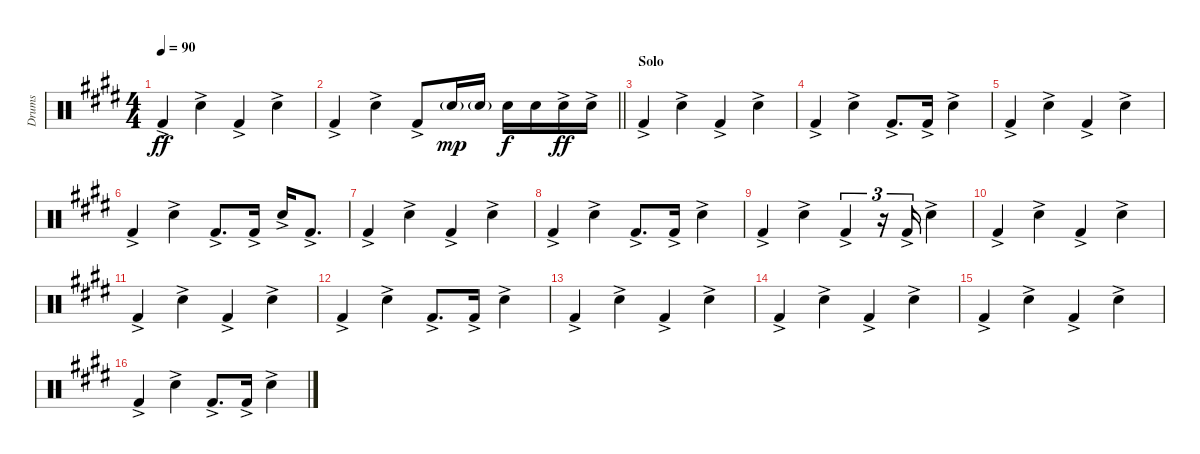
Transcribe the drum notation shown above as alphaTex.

\track ("Drums" "Drums") {instrument percussion}
\staff {score}
\articulation defaults
\ts (4 4)
\tempo 90
\clef neutral
\ks e "Kick (hit) 2"{ac}.4{dy ff} "Electric Snare (hit)"{ac}.4 "Kick (hit) 2"{ac}.4 "Electric Snare (hit)"{ac}.4
|
\barLineRight lightlight "Kick (hit) 2"{ac}.4 "Electric Snare (hit)"{ac}.4 "Kick (hit) 2"{ac}.8 "Electric Snare (hit)"{g}.16{dy mp} "Electric Snare (hit)"{g}.16 "Electric Snare (hit)".16{dy f} "Electric Snare (hit)".16 "Electric Snare (hit)"{ac}.16{dy ff} "Electric Snare (hit)"{ac}.16
|
\section ("" "Solo")
"Kick (hit) 2"{ac}.4 "Electric Snare (hit)"{ac}.4 "Kick (hit) 2"{ac}.4 "Electric Snare (hit)"{ac}.4 |
"Kick (hit) 2"{ac}.4 "Electric Snare (hit)"{ac}.4 "Kick (hit) 2"{ac}.8{d} "Kick (hit) 2"{ac}.16 "Electric Snare (hit)"{ac}.4 |
"Kick (hit) 2"{ac}.4 "Electric Snare (hit)"{ac}.4 "Kick (hit) 2"{ac}.4 "Electric Snare (hit)"{ac}.4 |
"Kick (hit) 2"{ac}.4 "Electric Snare (hit)"{ac}.4 "Kick (hit) 2"{ac}.8{d} "Kick (hit) 2"{ac}.16 "Electric Snare (hit)"{ac}.16 "Kick (hit) 2"{ac}.8{d} |
"Kick (hit) 2"{ac}.4 "Electric Snare (hit)"{ac}.4 "Kick (hit) 2"{ac}.4 "Electric Snare (hit)"{ac}.4 |
"Kick (hit) 2"{ac}.4 "Electric Snare (hit)"{ac}.4 "Kick (hit) 2"{ac}.8{d} "Kick (hit) 2"{ac}.16 "Electric Snare (hit)"{ac}.4 |
"Kick (hit) 2"{ac}.4 "Electric Snare (hit)"{ac}.4 "Kick (hit) 2"{ac}.4{tu (3 2)} r.16{tu (3 2)} "Kick (hit) 2"{ac}.16{tu (3 2)} "Electric Snare (hit)"{ac}.4 |
"Kick (hit) 2"{ac}.4 "Electric Snare (hit)"{ac}.4 "Kick (hit) 2"{ac}.4 "Electric Snare (hit)"{ac}.4 |
"Kick (hit) 2"{ac}.4 "Electric Snare (hit)"{ac}.4 "Kick (hit) 2"{ac}.4 "Electric Snare (hit)"{ac}.4 |
"Kick (hit) 2"{ac}.4 "Electric Snare (hit)"{ac}.4 "Kick (hit) 2"{ac}.8{d} "Kick (hit) 2"{ac}.16 "Electric Snare (hit)"{ac}.4 |
"Kick (hit) 2"{ac}.4 "Electric Snare (hit)"{ac}.4 "Kick (hit) 2"{ac}.4 "Electric Snare (hit)"{ac}.4 |
"Kick (hit) 2"{ac}.4 "Electric Snare (hit)"{ac}.4 "Kick (hit) 2"{ac}.4 "Electric Snare (hit)"{ac}.4 |
"Kick (hit) 2"{ac}.4 "Electric Snare (hit)"{ac}.4 "Kick (hit) 2"{ac}.4 "Electric Snare (hit)"{ac}.4 |
"Kick (hit) 2"{ac}.4 "Electric Snare (hit)"{ac}.4 "Kick (hit) 2"{ac}.8{d} "Kick (hit) 2"{ac}.16 "Electric Snare (hit)"{ac}.4
